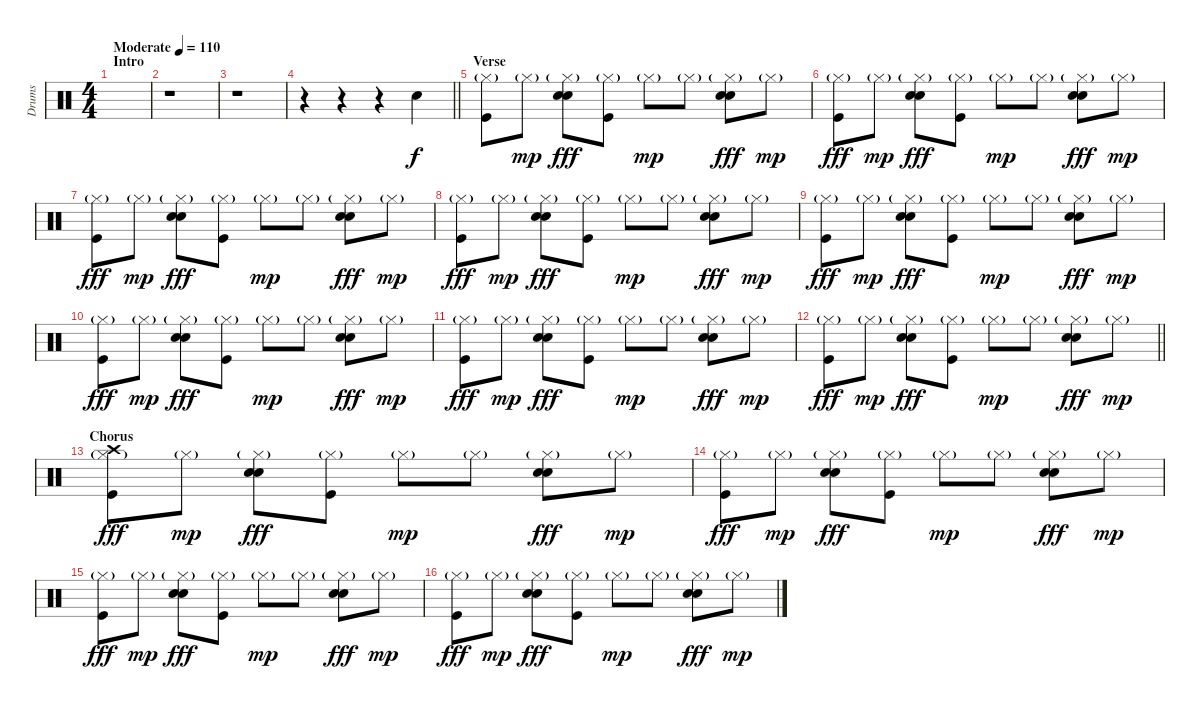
\track ("Drums" "Drums") {instrument percussion}
\staff {score}
\articulation defaults
\ts (4 4)
\section ("" "Intro")
\tempo (110 "Moderate")
\clef neutral
\ks c
|
r.1 |
r.1 |
\barLineRight lightlight
r.4 r.4 r.4 "Electric Snare (hit)".4 |
\section ("" "Verse")
("Hi-Hat (closed)"{g} "Kick (hit)").8 "Hi-Hat (closed)"{g}.8{dy mp} ("Hi-Hat (closed)"{g} "Electric Snare (hit)" "Hand Clap (hit)").8{dy fff} ("Hi-Hat (closed)"{g} "Kick (hit)").8 "Hi-Hat (closed)"{g}.8{dy mp} "Hi-Hat (closed)"{g}.8 ("Hi-Hat (closed)"{g} "Electric Snare (hit)" "Hand Clap (hit)").8{dy fff} "Hi-Hat (closed)"{g}.8{dy mp} |
("Hi-Hat (closed)"{g} "Kick (hit)").8{dy fff} "Hi-Hat (closed)"{g}.8{dy mp} ("Hi-Hat (closed)"{g} "Electric Snare (hit)" "Hand Clap (hit)").8{dy fff} ("Hi-Hat (closed)"{g} "Kick (hit)").8 "Hi-Hat (closed)"{g}.8{dy mp} "Hi-Hat (closed)"{g}.8 ("Hi-Hat (closed)"{g} "Electric Snare (hit)" "Hand Clap (hit)").8{dy fff} "Hi-Hat (closed)"{g}.8{dy mp} |
("Hi-Hat (closed)"{g} "Kick (hit)").8{dy fff} "Hi-Hat (closed)"{g}.8{dy mp} ("Hi-Hat (closed)"{g} "Electric Snare (hit)" "Hand Clap (hit)").8{dy fff} ("Hi-Hat (closed)"{g} "Kick (hit)").8 "Hi-Hat (closed)"{g}.8{dy mp} "Hi-Hat (closed)"{g}.8 ("Hi-Hat (closed)"{g} "Electric Snare (hit)" "Hand Clap (hit)").8{dy fff} "Hi-Hat (closed)"{g}.8{dy mp} |
("Hi-Hat (closed)"{g} "Kick (hit)").8{dy fff} "Hi-Hat (closed)"{g}.8{dy mp} ("Hi-Hat (closed)"{g} "Electric Snare (hit)" "Hand Clap (hit)").8{dy fff} ("Hi-Hat (closed)"{g} "Kick (hit)").8 "Hi-Hat (closed)"{g}.8{dy mp} "Hi-Hat (closed)"{g}.8 ("Hi-Hat (closed)"{g} "Electric Snare (hit)" "Hand Clap (hit)").8{dy fff} "Hi-Hat (closed)"{g}.8{dy mp} |
("Hi-Hat (closed)"{g} "Kick (hit)").8{dy fff} "Hi-Hat (closed)"{g}.8{dy mp} ("Hi-Hat (closed)"{g} "Electric Snare (hit)" "Hand Clap (hit)").8{dy fff} ("Hi-Hat (closed)"{g} "Kick (hit)").8 "Hi-Hat (closed)"{g}.8{dy mp} "Hi-Hat (closed)"{g}.8 ("Hi-Hat (closed)"{g} "Electric Snare (hit)" "Hand Clap (hit)").8{dy fff} "Hi-Hat (closed)"{g}.8{dy mp} |
("Hi-Hat (closed)"{g} "Kick (hit)").8{dy fff} "Hi-Hat (closed)"{g}.8{dy mp} ("Hi-Hat (closed)"{g} "Electric Snare (hit)" "Hand Clap (hit)").8{dy fff} ("Hi-Hat (closed)"{g} "Kick (hit)").8 "Hi-Hat (closed)"{g}.8{dy mp} "Hi-Hat (closed)"{g}.8 ("Hi-Hat (closed)"{g} "Electric Snare (hit)" "Hand Clap (hit)").8{dy fff} "Hi-Hat (closed)"{g}.8{dy mp} |
("Hi-Hat (closed)"{g} "Kick (hit)").8{dy fff} "Hi-Hat (closed)"{g}.8{dy mp} ("Hi-Hat (closed)"{g} "Electric Snare (hit)" "Hand Clap (hit)").8{dy fff} ("Hi-Hat (closed)"{g} "Kick (hit)").8 "Hi-Hat (closed)"{g}.8{dy mp} "Hi-Hat (closed)"{g}.8 ("Hi-Hat (closed)"{g} "Electric Snare (hit)" "Hand Clap (hit)").8{dy fff} "Hi-Hat (closed)"{g}.8{dy mp} |
\barLineRight lightlight
("Hi-Hat (closed)"{g} "Kick (hit)").8{dy fff} "Hi-Hat (closed)"{g}.8{dy mp} ("Hi-Hat (closed)"{g} "Electric Snare (hit)" "Hand Clap (hit)").8{dy fff} ("Hi-Hat (closed)"{g} "Kick (hit)").8 "Hi-Hat (closed)"{g}.8{dy mp} "Hi-Hat (closed)"{g}.8 ("Hi-Hat (closed)"{g} "Electric Snare (hit)" "Hand Clap (hit)").8{dy fff} "Hi-Hat (closed)"{g}.8{dy mp} |
\section ("" "Chorus")
("Hi-Hat (closed)"{g} "Kick (hit)" "Crash high (hit)").8{dy fff} "Hi-Hat (closed)"{g}.8{dy mp} ("Hi-Hat (closed)"{g} "Electric Snare (hit)" "Hand Clap (hit)").8{dy fff} ("Hi-Hat (closed)"{g} "Kick (hit)").8 "Hi-Hat (closed)"{g}.8{dy mp} "Hi-Hat (closed)"{g}.8 ("Hi-Hat (closed)"{g} "Electric Snare (hit)" "Hand Clap (hit)").8{dy fff} "Hi-Hat (closed)"{g}.8{dy mp} |
("Hi-Hat (closed)"{g} "Kick (hit)").8{dy fff} "Hi-Hat (closed)"{g}.8{dy mp} ("Hi-Hat (closed)"{g} "Electric Snare (hit)" "Hand Clap (hit)").8{dy fff} ("Hi-Hat (closed)"{g} "Kick (hit)").8 "Hi-Hat (closed)"{g}.8{dy mp} "Hi-Hat (closed)"{g}.8 ("Hi-Hat (closed)"{g} "Electric Snare (hit)" "Hand Clap (hit)").8{dy fff} "Hi-Hat (closed)"{g}.8{dy mp} |
("Hi-Hat (closed)"{g} "Kick (hit)").8{dy fff} "Hi-Hat (closed)"{g}.8{dy mp} ("Hi-Hat (closed)"{g} "Electric Snare (hit)" "Hand Clap (hit)").8{dy fff} ("Hi-Hat (closed)"{g} "Kick (hit)").8 "Hi-Hat (closed)"{g}.8{dy mp} "Hi-Hat (closed)"{g}.8 ("Hi-Hat (closed)"{g} "Electric Snare (hit)" "Hand Clap (hit)").8{dy fff} "Hi-Hat (closed)"{g}.8{dy mp} |
("Hi-Hat (closed)"{g} "Kick (hit)").8{dy fff} "Hi-Hat (closed)"{g}.8{dy mp} ("Hi-Hat (closed)"{g} "Electric Snare (hit)" "Hand Clap (hit)").8{dy fff} ("Hi-Hat (closed)"{g} "Kick (hit)").8 "Hi-Hat (closed)"{g}.8{dy mp} "Hi-Hat (closed)"{g}.8 ("Hi-Hat (closed)"{g} "Electric Snare (hit)" "Hand Clap (hit)").8{dy fff} "Hi-Hat (closed)"{g}.8{dy mp}
